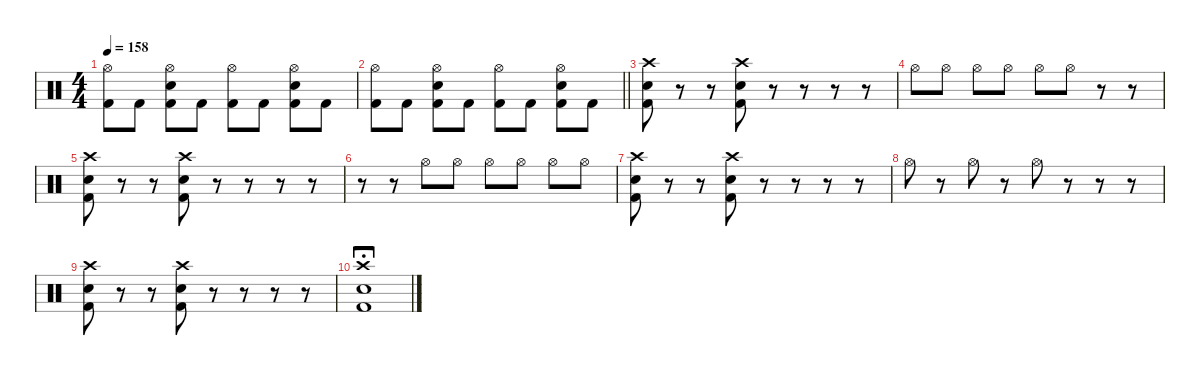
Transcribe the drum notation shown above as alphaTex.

\defaultSystemsLayout 4
\hideDynamics
\bracketExtendMode nobrackets
\singleTrackTrackNamePolicy hidden
\multiTrackTrackNamePolicy hidden
\firstSystemTrackNameMode fullname
\firstSystemTrackNameOrientation horizontal
\otherSystemsTrackNameOrientation horizontal
\track ("Drums" "drm.") {instrument percussion}
\staff {score}
\articulation defaults
\ts (4 4)
\tempo 158
\clef neutral
\ks c
("Hi-Hat (open)" "Kick (hit) 2").8{dy f beam Down} "Kick (hit) 2".8{beam Down} ("Hi-Hat (open)" "Snare (hit) 2" "Kick (hit) 2").8{beam Down} "Kick (hit) 2".8{beam Down} ("Hi-Hat (open)" "Kick (hit) 2").8{beam Down} "Kick (hit) 2".8{beam Down} ("Hi-Hat (open)" "Kick (hit) 2" "Snare (hit) 2").8{beam Down} "Kick (hit) 2".8{beam Down} |
\barLineRight lightlight
("Hi-Hat (open)" "Kick (hit) 2").8{beam Down} "Kick (hit) 2".8{beam Down} ("Hi-Hat (open)" "Snare (hit) 2" "Kick (hit) 2").8{beam Down} "Kick (hit) 2".8{beam Down} ("Hi-Hat (open)" "Kick (hit) 2").8{beam Down} "Kick (hit) 2".8{beam Down} ("Hi-Hat (open)" "Kick (hit) 2" "Snare (hit) 2").8{beam Down} "Kick (hit) 2".8{beam Down} |
("Crash high (hit)" "Snare (hit) 2" "Kick (hit) 2").8{beam Down} r.8{beam Down} r.8{beam Down} ("Crash high (hit)" "Snare (hit) 2" "Kick (hit) 2").8{beam Down} r.8{beam Down} r.8{beam Down} r.8{beam Down} r.8{beam Down} |
"Hi-Hat (open)".8{beam Down} "Hi-Hat (open)".8{beam Down} "Hi-Hat (open)".8{beam Down} "Hi-Hat (open)".8{beam Down} "Hi-Hat (open)".8{beam Down} "Hi-Hat (open)".8{beam Down} r.8{beam Down} r.8{beam Down} |
("Crash high (hit)" "Snare (hit) 2" "Kick (hit) 2").8{beam Down} r.8{beam Down} r.8{beam Down} ("Crash high (hit)" "Snare (hit) 2" "Kick (hit) 2").8{beam Down} r.8{beam Down} r.8{beam Down} r.8{beam Down} r.8{beam Down} |
r.8{beam Down} r.8{beam Down} "Hi-Hat (open)".8{beam Down} "Hi-Hat (open)".8{beam Down} "Hi-Hat (open)".8{beam Down} "Hi-Hat (open)".8{beam Down} "Hi-Hat (open)".8{beam Down} "Hi-Hat (open)".8{beam Down} |
("Crash high (hit)" "Snare (hit) 2" "Kick (hit) 2").8{beam Down} r.8{beam Down} r.8{beam Down} ("Crash high (hit)" "Snare (hit) 2" "Kick (hit) 2").8{beam Down} r.8{beam Down} r.8{beam Down} r.8{beam Down} r.8{beam Down} |
"Hi-Hat (open)".8{beam Down} r.8{beam Down} "Hi-Hat (open)".8{beam Down} r.8{beam Down} "Hi-Hat (open)".8{beam Down} r.8{beam Down} r.8{beam Down} r.8{beam Down} |
("Crash high (hit)" "Snare (hit) 2" "Kick (hit) 2").8{beam Down} r.8{beam Down} r.8{beam Down} ("Crash high (hit)" "Snare (hit) 2" "Kick (hit) 2").8{beam Down} r.8{beam Down} r.8{beam Down} r.8{beam Down} r.8{beam Down} |
("Crash high (hit)" "Snare (hit) 2" "Kick (hit) 2").1{fermata (long 1) beam Down}
